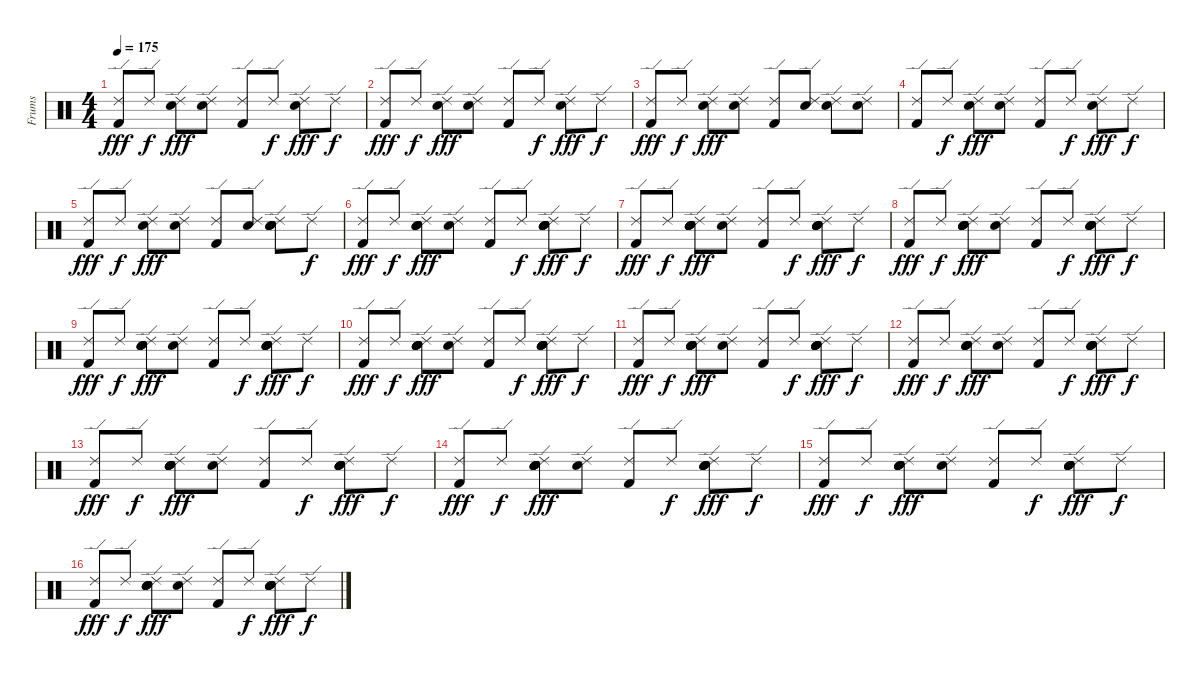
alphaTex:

\track ("Frums" "Frums") {instrument percussion}
\staff {score}
\articulation defaults
\ts (4 4)
\tempo 175
\clef neutral
\ks c
("Ride (edge) 2" "Kick (hit) 2").8{dy fff} "Ride (edge) 2".8{dy f} ("Ride (edge) 2" "Electric Snare (hit)").8{dy fff} ("Ride (edge) 2" "Electric Snare (hit)").8 ("Ride (edge) 2" "Kick (hit) 2").8 "Ride (edge) 2".8{dy f} ("Ride (edge) 2" "Electric Snare (hit)").8{dy fff} "Ride (edge) 2".8{dy f} |
("Ride (edge) 2" "Kick (hit) 2").8{dy fff} "Ride (edge) 2".8{dy f} ("Ride (edge) 2" "Electric Snare (hit)").8{dy fff} ("Ride (edge) 2" "Electric Snare (hit)").8 ("Ride (edge) 2" "Kick (hit) 2").8 "Ride (edge) 2".8{dy f} ("Ride (edge) 2" "Electric Snare (hit)").8{dy fff} "Ride (edge) 2".8{dy f} |
("Ride (edge) 2" "Kick (hit) 2").8{dy fff} "Ride (edge) 2".8{dy f} ("Ride (edge) 2" "Electric Snare (hit)").8{dy fff} ("Ride (edge) 2" "Electric Snare (hit)").8 ("Ride (edge) 2" "Kick (hit) 2").8 ("Ride (edge) 2" "Electric Snare (hit)").8 ("Ride (edge) 2" "Electric Snare (hit)").8 ("Ride (edge) 2" "Electric Snare (hit)").8 |
("Ride (edge) 2" "Kick (hit) 2").8 "Ride (edge) 2".8{dy f} ("Ride (edge) 2" "Electric Snare (hit)").8{dy fff} ("Ride (edge) 2" "Electric Snare (hit)").8 ("Ride (edge) 2" "Kick (hit) 2").8 "Ride (edge) 2".8{dy f} ("Ride (edge) 2" "Electric Snare (hit)").8{dy fff} "Ride (edge) 2".8{dy f} |
("Ride (edge) 2" "Kick (hit) 2").8{dy fff} "Ride (edge) 2".8{dy f} ("Ride (edge) 2" "Electric Snare (hit)").8{dy fff} ("Ride (edge) 2" "Electric Snare (hit)").8 ("Ride (edge) 2" "Kick (hit) 2").8 ("Ride (edge) 2" "Electric Snare (hit)").8 ("Ride (edge) 2" "Electric Snare (hit)" "Hand Clap (hit)" "Hand Clap (hit)" "Hand Clap (hit)").8 "Ride (edge) 2".8{dy f} |
("Ride (edge) 2" "Kick (hit) 2").8{dy fff} "Ride (edge) 2".8{dy f} ("Ride (edge) 2" "Electric Snare (hit)" "Hand Clap (hit)" "Hand Clap (hit)" "Hand Clap (hit)").8{dy fff} ("Ride (edge) 2" "Electric Snare (hit)").8 ("Ride (edge) 2" "Kick (hit) 2").8 "Ride (edge) 2".8{dy f} ("Ride (edge) 2" "Electric Snare (hit)" "Hand Clap (hit)" "Hand Clap (hit)" "Hand Clap (hit)").8{dy fff} "Ride (edge) 2".8{dy f} |
("Ride (edge) 2" "Kick (hit) 2").8{dy fff} "Ride (edge) 2".8{dy f} ("Ride (edge) 2" "Electric Snare (hit)" "Hand Clap (hit)" "Hand Clap (hit)" "Hand Clap (hit)").8{dy fff} ("Ride (edge) 2" "Electric Snare (hit)").8 ("Ride (edge) 2" "Kick (hit) 2").8 "Ride (edge) 2".8{dy f} ("Ride (edge) 2" "Electric Snare (hit)" "Hand Clap (hit)" "Hand Clap (hit)" "Hand Clap (hit)").8{dy fff} "Ride (edge) 2".8{dy f} |
("Ride (edge) 2" "Kick (hit) 2").8{dy fff} "Ride (edge) 2".8{dy f} ("Ride (edge) 2" "Electric Snare (hit)" "Hand Clap (hit)" "Hand Clap (hit)" "Hand Clap (hit)").8{dy fff} ("Ride (edge) 2" "Electric Snare (hit)").8 ("Ride (edge) 2" "Kick (hit) 2").8 "Ride (edge) 2".8{dy f} ("Ride (edge) 2" "Electric Snare (hit)" "Hand Clap (hit)" "Hand Clap (hit)" "Hand Clap (hit)").8{dy fff} "Ride (edge) 2".8{dy f} |
("Ride (edge) 2" "Kick (hit) 2").8{dy fff} "Ride (edge) 2".8{dy f} ("Ride (edge) 2" "Electric Snare (hit)" "Hand Clap (hit)" "Hand Clap (hit)" "Hand Clap (hit)").8{dy fff} ("Ride (edge) 2" "Electric Snare (hit)").8 ("Ride (edge) 2" "Kick (hit) 2").8 "Ride (edge) 2".8{dy f} ("Ride (edge) 2" "Electric Snare (hit)" "Hand Clap (hit)" "Hand Clap (hit)" "Hand Clap (hit)").8{dy fff} "Ride (edge) 2".8{dy f} |
("Ride (edge) 2" "Kick (hit) 2").8{dy fff} "Ride (edge) 2".8{dy f} ("Ride (edge) 2" "Electric Snare (hit)" "Hand Clap (hit)" "Hand Clap (hit)" "Hand Clap (hit)").8{dy fff} ("Ride (edge) 2" "Electric Snare (hit)").8 ("Ride (edge) 2" "Kick (hit) 2").8 "Ride (edge) 2".8{dy f} ("Ride (edge) 2" "Electric Snare (hit)" "Hand Clap (hit)" "Hand Clap (hit)" "Hand Clap (hit)").8{dy fff} "Ride (edge) 2".8{dy f} |
("Ride (edge) 2" "Kick (hit) 2").8{dy fff} "Ride (edge) 2".8{dy f} ("Ride (edge) 2" "Electric Snare (hit)" "Hand Clap (hit)" "Hand Clap (hit)" "Hand Clap (hit)").8{dy fff} ("Ride (edge) 2" "Electric Snare (hit)").8 ("Ride (edge) 2" "Kick (hit) 2").8 "Ride (edge) 2".8{dy f} ("Ride (edge) 2" "Electric Snare (hit)" "Hand Clap (hit)" "Hand Clap (hit)" "Hand Clap (hit)").8{dy fff} "Ride (edge) 2".8{dy f} |
("Ride (edge) 2" "Kick (hit) 2").8{dy fff} "Ride (edge) 2".8{dy f} ("Ride (edge) 2" "Electric Snare (hit)" "Hand Clap (hit)" "Hand Clap (hit)" "Hand Clap (hit)").8{dy fff} ("Ride (edge) 2" "Electric Snare (hit)").8 ("Ride (edge) 2" "Kick (hit) 2").8 "Ride (edge) 2".8{dy f} ("Ride (edge) 2" "Electric Snare (hit)" "Hand Clap (hit)" "Hand Clap (hit)" "Hand Clap (hit)").8{dy fff} "Ride (edge) 2".8{dy f} |
("Ride (edge) 2" "Kick (hit) 2").8{dy fff} "Ride (edge) 2".8{dy f} ("Ride (edge) 2" "Electric Snare (hit)" "Hand Clap (hit)" "Hand Clap (hit)" "Hand Clap (hit)").8{dy fff} ("Ride (edge) 2" "Electric Snare (hit)").8 ("Ride (edge) 2" "Kick (hit) 2").8 "Ride (edge) 2".8{dy f} ("Ride (edge) 2" "Electric Snare (hit)" "Hand Clap (hit)" "Hand Clap (hit)" "Hand Clap (hit)").8{dy fff} "Ride (edge) 2".8{dy f} |
("Ride (edge) 2" "Kick (hit) 2").8{dy fff} "Ride (edge) 2".8{dy f} ("Ride (edge) 2" "Electric Snare (hit)" "Hand Clap (hit)" "Hand Clap (hit)" "Hand Clap (hit)").8{dy fff} ("Ride (edge) 2" "Electric Snare (hit)").8 ("Ride (edge) 2" "Kick (hit) 2").8 "Ride (edge) 2".8{dy f} ("Ride (edge) 2" "Electric Snare (hit)" "Hand Clap (hit)" "Hand Clap (hit)" "Hand Clap (hit)").8{dy fff} "Ride (edge) 2".8{dy f} |
("Ride (edge) 2" "Kick (hit) 2").8{dy fff} "Ride (edge) 2".8{dy f} ("Ride (edge) 2" "Electric Snare (hit)" "Hand Clap (hit)" "Hand Clap (hit)" "Hand Clap (hit)").8{dy fff} ("Ride (edge) 2" "Electric Snare (hit)").8 ("Ride (edge) 2" "Kick (hit) 2").8 "Ride (edge) 2".8{dy f} ("Ride (edge) 2" "Electric Snare (hit)" "Hand Clap (hit)" "Hand Clap (hit)" "Hand Clap (hit)").8{dy fff} "Ride (edge) 2".8{dy f} |
("Ride (edge) 2" "Kick (hit) 2").8{dy fff} "Ride (edge) 2".8{dy f} ("Ride (edge) 2" "Electric Snare (hit)" "Hand Clap (hit)" "Hand Clap (hit)" "Hand Clap (hit)").8{dy fff} ("Ride (edge) 2" "Electric Snare (hit)").8 ("Ride (edge) 2" "Kick (hit) 2").8 "Ride (edge) 2".8{dy f} ("Ride (edge) 2" "Electric Snare (hit)" "Hand Clap (hit)" "Hand Clap (hit)" "Hand Clap (hit)").8{dy fff} "Ride (edge) 2".8{dy f}
